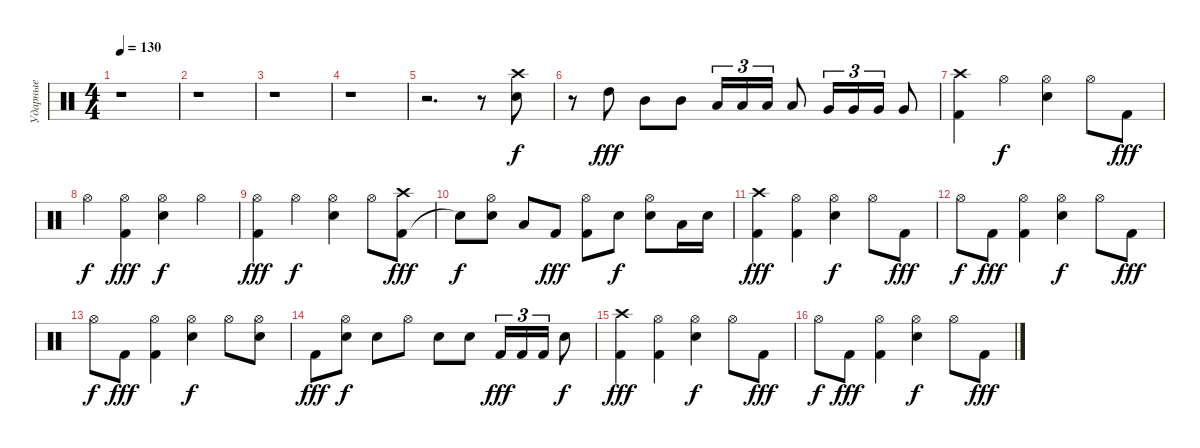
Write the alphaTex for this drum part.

\track ("Ударные" "Ударные") {instrument percussion}
\staff {score}
\articulation defaults
\ts (4 4)
\tempo 130
\clef neutral
\ks c
r.1{dy f} |
r.1 |
r.1 |
r.1 |
r.2{d} r.8 ("Snare (hit) 2" "Crash high (hit)").8 |
r.8 "High Tom (hit)".8{dy fff} "Mid Tom (hit)".8 "Mid Tom (hit)".8 "Low Tom (hit)".16{tu (3 2)} "Low Tom (hit)".16{tu (3 2)} "Low Tom (hit)".16{tu (3 2)} "Low Tom (hit)".8 "Very Low Tom (hit)".16{tu (3 2)} "Very Low Tom (hit)".16{tu (3 2)} "Very Low Tom (hit)".16{tu (3 2)} "Very Low Tom (hit)".8 |
("Kick (hit) 2" "Crash high (hit)").4 "Hi-Hat (open)".4{dy f} ("Snare (hit) 2" "Hi-Hat (open)").4 "Hi-Hat (open)".8 "Kick (hit) 2".8{dy fff} |
"Hi-Hat (open)".4{dy f} ("Kick (hit) 2" "Hi-Hat (open)").4{dy fff} ("Snare (hit) 2" "Hi-Hat (open)").4{dy f} "Hi-Hat (open)".4 |
("Kick (hit) 2" "Hi-Hat (open)").4{dy fff} "Hi-Hat (open)".4{dy f} ("Snare (hit) 2" "Hi-Hat (open)").4 "Hi-Hat (open)".8 ("Kick (hit) 2" "Crash high (hit)").8{dy fff} |
"Snare (hit)"{t}.8{dy f} ("Snare (hit) 2" "Hi-Hat (open)").8 "Low Tom (hit)".8 "Kick (hit) 2".8{dy fff} ("Kick (hit) 2" "Hi-Hat (open)").8 "Snare (hit) 2".8{dy f} ("Snare (hit) 2" "Hi-Hat (open)").8 "Low Tom (hit)".16 "Snare (hit) 2".16 |
("Kick (hit) 2" "Crash high (hit)").4{dy fff} ("Kick (hit) 2" "Hi-Hat (open)").4 ("Snare (hit) 2" "Hi-Hat (open)").4{dy f} "Hi-Hat (open)".8 "Kick (hit) 2".8{dy fff} |
"Hi-Hat (open)".8{dy f} "Kick (hit) 2".8{dy fff} ("Kick (hit) 2" "Hi-Hat (open)").4 ("Snare (hit) 2" "Hi-Hat (open)").4{dy f} "Hi-Hat (open)".8 "Kick (hit) 2".8{dy fff} |
"Hi-Hat (open)".8{dy f} "Kick (hit) 2".8{dy fff} ("Kick (hit) 2" "Hi-Hat (open)").4 ("Snare (hit) 2" "Hi-Hat (open)").4{dy f} "Hi-Hat (open)".8 ("Snare (hit) 2" "Hi-Hat (open)").8 |
"Kick (hit) 2".8{dy fff} ("Snare (hit) 2" "Hi-Hat (open)").8{dy f} "Snare (hit) 2".8 "Hi-Hat (open)".8 "Snare (hit) 2".8 "Snare (hit) 2".8 "Kick (hit) 2".16{tu (3 2) dy fff} "Kick (hit) 2".16{tu (3 2)} "Kick (hit) 2".16{tu (3 2)} "Snare (hit) 2".8{dy f} |
("Kick (hit) 2" "Crash high (hit)").4{dy fff} ("Kick (hit) 2" "Hi-Hat (open)").4 ("Snare (hit) 2" "Hi-Hat (open)").4{dy f} "Hi-Hat (open)".8 "Kick (hit) 2".8{dy fff} |
"Hi-Hat (open)".8{dy f} "Kick (hit) 2".8{dy fff} ("Kick (hit) 2" "Hi-Hat (open)").4 ("Snare (hit) 2" "Hi-Hat (open)").4{dy f} "Hi-Hat (open)".8 "Kick (hit) 2".8{dy fff}
